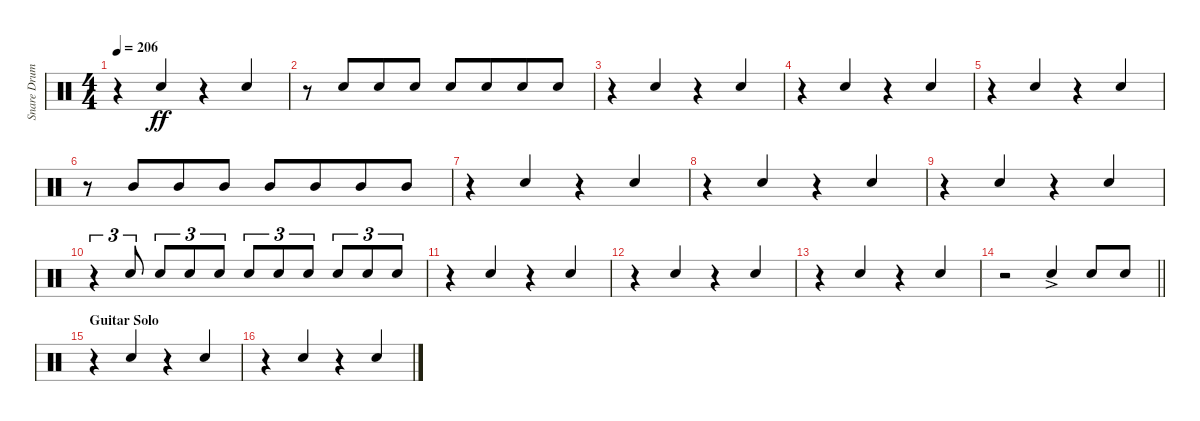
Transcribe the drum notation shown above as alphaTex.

\track ("Snare Drum" "Snare Drum") {instrument percussion}
\staff {score}
\articulation defaults
\ts (4 4)
\tempo 206
\clef neutral
\ks c
r.4{dy ff} "Electric Snare (hit)".4{beam Up} r.4 "Electric Snare (hit)".4{beam Up} |
r.8 "Electric Snare (hit)".8{beam Up beam merge} "Electric Snare (hit)".8{beam Up} "Electric Snare (hit)".8{beam Up beam split} "Electric Snare (hit)".8{beam Up} "Electric Snare (hit)".8{beam Up beam merge} "Electric Snare (hit)".8{beam Up} "Electric Snare (hit)".8{beam Up} |
r.4 "Electric Snare (hit)".4{beam Up} r.4 "Electric Snare (hit)".4{beam Up} |
r.4 "Electric Snare (hit)".4{beam Up} r.4 "Electric Snare (hit)".4{beam Up} |
r.4 "Electric Snare (hit)".4{beam Up} r.4 "Electric Snare (hit)".4{beam Up} |
r.8 "Mid Tom (hit)".8{beam Up beam merge} "Mid Tom (hit)".8{beam Up} "Mid Tom (hit)".8{beam Up} "Mid Tom (hit)".8{beam Up} "Mid Tom (hit)".8{beam Up beam merge} "Mid Tom (hit)".8{beam Up} "Mid Tom (hit)".8{beam Up} |
r.4 "Electric Snare (hit)".4{beam Up} r.4 "Electric Snare (hit)".4{beam Up} |
r.4 "Electric Snare (hit)".4{beam Up} r.4 "Electric Snare (hit)".4{beam Up} |
r.4 "Electric Snare (hit)".4{beam Up} r.4 "Electric Snare (hit)".4{beam Up} |
r.4{tu (3 2) beam Up} "Electric Snare (hit)".8{tu (3 2) beam Up} "Electric Snare (hit)".8{tu (3 2) beam Up} "Electric Snare (hit)".8{tu (3 2) beam Up} "Electric Snare (hit)".8{tu (3 2) beam Up} "Electric Snare (hit)".8{tu (3 2) beam Up} "Electric Snare (hit)".8{tu (3 2) beam Up} "Electric Snare (hit)".8{tu (3 2) beam Up} "Electric Snare (hit)".8{tu (3 2) beam Up} "Electric Snare (hit)".8{tu (3 2) beam Up} "Electric Snare (hit)".8{tu (3 2) beam Up} |
r.4 "Electric Snare (hit)".4{beam Up} r.4 "Electric Snare (hit)".4{beam Up} |
r.4 "Electric Snare (hit)".4{beam Up} r.4 "Electric Snare (hit)".4{beam Up} |
r.4 "Electric Snare (hit)".4{beam Up} r.4 "Electric Snare (hit)".4{beam Up} |
\barLineRight lightlight
r.2{beam Up} "Electric Snare (hit)"{ac}.4{beam Up} "Electric Snare (hit)".8{beam Up} "Electric Snare (hit)".8{beam Up} |
\section ("" "Guitar Solo")
r.4 "Electric Snare (hit)".4{beam Up} r.4 "Electric Snare (hit)".4{beam Up} |
r.4 "Electric Snare (hit)".4{beam Up} r.4 "Electric Snare (hit)".4{beam Up}
